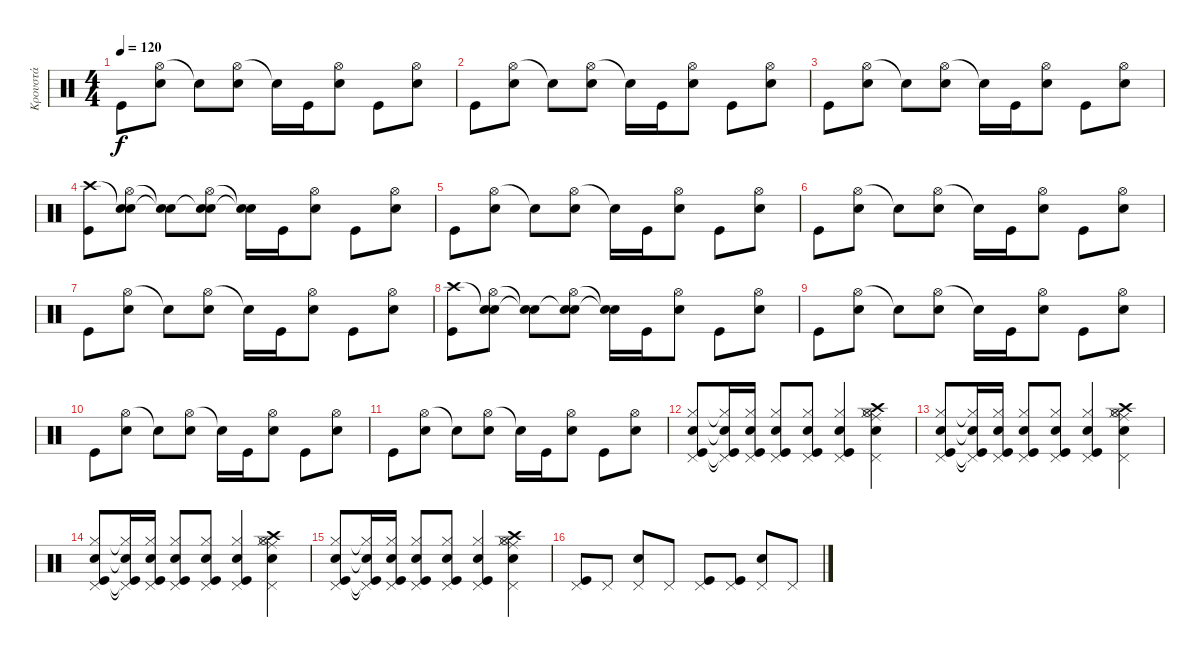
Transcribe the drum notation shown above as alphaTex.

\track ("Κρουστά" "Κρουστά") {instrument percussion}
\staff {score}
\articulation defaults
\ts (4 4)
\tempo 120
\clef neutral
\ks c "Kick (hit)".8{dy f}
("Hi-Hat (open)" "Snare (hit) 2").8 "Snare (hit)"{t}.8 ("Hi-Hat (open)" "Snare (hit) 2").8 "Snare (hit)"{t}.16 "Kick (hit)".16 ("Hi-Hat (open)" "Snare (hit) 2").8 "Kick (hit)".8 ("Hi-Hat (open)" "Snare (hit) 2").8 |
"Kick (hit)".8 ("Hi-Hat (open)" "Snare (hit) 2").8 "Snare (hit)"{t}.8 ("Hi-Hat (open)" "Snare (hit) 2").8 "Snare (hit)"{t}.16 "Kick (hit)".16 ("Hi-Hat (open)" "Snare (hit) 2").8 "Kick (hit)".8 ("Hi-Hat (open)" "Snare (hit) 2").8 |
"Kick (hit)".8 ("Hi-Hat (open)" "Snare (hit) 2").8 "Snare (hit)"{t}.8 ("Hi-Hat (open)" "Snare (hit) 2").8 "Snare (hit)"{t}.16 "Kick (hit)".16 ("Hi-Hat (open)" "Snare (hit) 2").8 "Kick (hit)".8 ("Hi-Hat (open)" "Snare (hit) 2").8 |
("Crash high (hit)" "Kick (hit)").8 ("Snare (hit)"{t} "Hi-Hat (open)" "Snare (hit) 2").8 ("Snare (hit)"{t} "Snare (hit)"{t}).8 ("Snare (hit)"{t} "Hi-Hat (open)" "Snare (hit) 2").8 ("Snare (hit)"{t} "Snare (hit)"{t}).16 "Kick (hit)".16 ("Hi-Hat (open)" "Snare (hit) 2").8 "Kick (hit)".8 ("Hi-Hat (open)" "Snare (hit) 2").8 |
"Kick (hit)".8 ("Hi-Hat (open)" "Snare (hit) 2").8 "Snare (hit)"{t}.8 ("Hi-Hat (open)" "Snare (hit) 2").8 "Snare (hit)"{t}.16 "Kick (hit)".16 ("Hi-Hat (open)" "Snare (hit) 2").8 "Kick (hit)".8 ("Hi-Hat (open)" "Snare (hit) 2").8 |
"Kick (hit)".8 ("Hi-Hat (open)" "Snare (hit) 2").8 "Snare (hit)"{t}.8 ("Hi-Hat (open)" "Snare (hit) 2").8 "Snare (hit)"{t}.16 "Kick (hit)".16 ("Hi-Hat (open)" "Snare (hit) 2").8 "Kick (hit)".8 ("Hi-Hat (open)" "Snare (hit) 2").8 |
"Kick (hit)".8 ("Hi-Hat (open)" "Snare (hit) 2").8 "Snare (hit)"{t}.8 ("Hi-Hat (open)" "Snare (hit) 2").8 "Snare (hit)"{t}.16 "Kick (hit)".16 ("Hi-Hat (open)" "Snare (hit) 2").8 "Kick (hit)".8 ("Hi-Hat (open)" "Snare (hit) 2").8 |
("Crash high (hit)" "Kick (hit)").8 ("Snare (hit)"{t} "Hi-Hat (open)" "Snare (hit) 2").8 ("Snare (hit)"{t} "Snare (hit)"{t}).8 ("Snare (hit)"{t} "Hi-Hat (open)" "Snare (hit) 2").8 ("Snare (hit)"{t} "Snare (hit)"{t}).16 "Kick (hit)".16 ("Hi-Hat (open)" "Snare (hit) 2").8 "Kick (hit)".8 ("Hi-Hat (open)" "Snare (hit) 2").8 |
"Kick (hit)".8 ("Hi-Hat (open)" "Snare (hit) 2").8 "Snare (hit)"{t}.8 ("Hi-Hat (open)" "Snare (hit) 2").8 "Snare (hit)"{t}.16 "Kick (hit)".16 ("Hi-Hat (open)" "Snare (hit) 2").8 "Kick (hit)".8 ("Hi-Hat (open)" "Snare (hit) 2").8 |
"Kick (hit)".8 ("Hi-Hat (open)" "Snare (hit) 2").8 "Snare (hit)"{t}.8 ("Hi-Hat (open)" "Snare (hit) 2").8 "Snare (hit)"{t}.16 "Kick (hit)".16 ("Hi-Hat (open)" "Snare (hit) 2").8 "Kick (hit)".8 ("Hi-Hat (open)" "Snare (hit) 2").8 |
"Kick (hit)".8 ("Hi-Hat (open)" "Snare (hit) 2").8 "Snare (hit)"{t}.8 ("Hi-Hat (open)" "Snare (hit) 2").8 "Snare (hit)"{t}.16 "Kick (hit)".16 ("Hi-Hat (open)" "Snare (hit) 2").8 "Kick (hit)".8 ("Hi-Hat (open)" "Snare (hit) 2").8 |
("Hi-Hat (closed)" "Pedal Hi-Hat (hit)" "Snare (hit) 2" "Kick (hit)").8 ("Hi-Hat (closed)"{t} "Pedal Hi-Hat (hit)"{t} "Snare (hit) 2"{t} "Kick (hit)"{t}).16 ("Hi-Hat (closed)" "Pedal Hi-Hat (hit)" "Snare (hit) 2" "Kick (hit)").16 ("Hi-Hat (closed)" "Pedal Hi-Hat (hit)" "Snare (hit) 2" "Kick (hit)").8 ("Hi-Hat (closed)" "Pedal Hi-Hat (hit)" "Snare (hit) 2" "Kick (hit)").8 ("Hi-Hat (closed)" "Pedal Hi-Hat (hit)" "Snare (hit) 2" "Kick (hit)").4 ("Hi-Hat (closed)" "Pedal Hi-Hat (hit)" "Snare (hit) 2" "Crash high (hit)" "Hi-Hat (open)" "Ride (middle)").4 |
("Hi-Hat (closed)" "Pedal Hi-Hat (hit)" "Snare (hit) 2" "Kick (hit)").8 ("Hi-Hat (closed)"{t} "Pedal Hi-Hat (hit)"{t} "Snare (hit) 2"{t} "Kick (hit)"{t}).16 ("Hi-Hat (closed)" "Pedal Hi-Hat (hit)" "Snare (hit) 2" "Kick (hit)").16 ("Hi-Hat (closed)" "Pedal Hi-Hat (hit)" "Snare (hit) 2" "Kick (hit)").8 ("Hi-Hat (closed)" "Pedal Hi-Hat (hit)" "Snare (hit) 2" "Kick (hit)").8 ("Hi-Hat (closed)" "Pedal Hi-Hat (hit)" "Snare (hit) 2" "Kick (hit)").4 ("Hi-Hat (closed)" "Pedal Hi-Hat (hit)" "Snare (hit) 2" "Crash high (hit)" "Hi-Hat (open)" "Ride (middle)").4 |
("Hi-Hat (closed)" "Pedal Hi-Hat (hit)" "Snare (hit) 2" "Kick (hit)").8 ("Hi-Hat (closed)"{t} "Pedal Hi-Hat (hit)"{t} "Snare (hit) 2"{t} "Kick (hit)"{t}).16 ("Hi-Hat (closed)" "Pedal Hi-Hat (hit)" "Snare (hit) 2" "Kick (hit)").16 ("Hi-Hat (closed)" "Pedal Hi-Hat (hit)" "Snare (hit) 2" "Kick (hit)").8 ("Hi-Hat (closed)" "Pedal Hi-Hat (hit)" "Snare (hit) 2" "Kick (hit)").8 ("Hi-Hat (closed)" "Pedal Hi-Hat (hit)" "Snare (hit) 2" "Kick (hit)").4 ("Hi-Hat (closed)" "Pedal Hi-Hat (hit)" "Snare (hit) 2" "Crash high (hit)" "Hi-Hat (open)" "Ride (middle)").4 |
("Hi-Hat (closed)" "Pedal Hi-Hat (hit)" "Snare (hit) 2" "Kick (hit)").8 ("Hi-Hat (closed)"{t} "Pedal Hi-Hat (hit)"{t} "Snare (hit) 2"{t} "Kick (hit)"{t}).16 ("Hi-Hat (closed)" "Pedal Hi-Hat (hit)" "Snare (hit) 2" "Kick (hit)").16 ("Hi-Hat (closed)" "Pedal Hi-Hat (hit)" "Snare (hit) 2" "Kick (hit)").8 ("Hi-Hat (closed)" "Pedal Hi-Hat (hit)" "Snare (hit) 2" "Kick (hit)").8 ("Hi-Hat (closed)" "Pedal Hi-Hat (hit)" "Snare (hit) 2" "Kick (hit)").4 ("Hi-Hat (closed)" "Pedal Hi-Hat (hit)" "Snare (hit) 2" "Crash high (hit)" "Hi-Hat (open)" "Ride (middle)").4 |
("Pedal Hi-Hat (hit)" "Kick (hit)").8 "Pedal Hi-Hat (hit)".8 ("Pedal Hi-Hat (hit)" "Snare (hit) 2").8 "Pedal Hi-Hat (hit)".8 ("Pedal Hi-Hat (hit)" "Kick (hit)").8 ("Pedal Hi-Hat (hit)" "Kick (hit)").8 ("Pedal Hi-Hat (hit)" "Snare (hit) 2").8 "Pedal Hi-Hat (hit)".8
